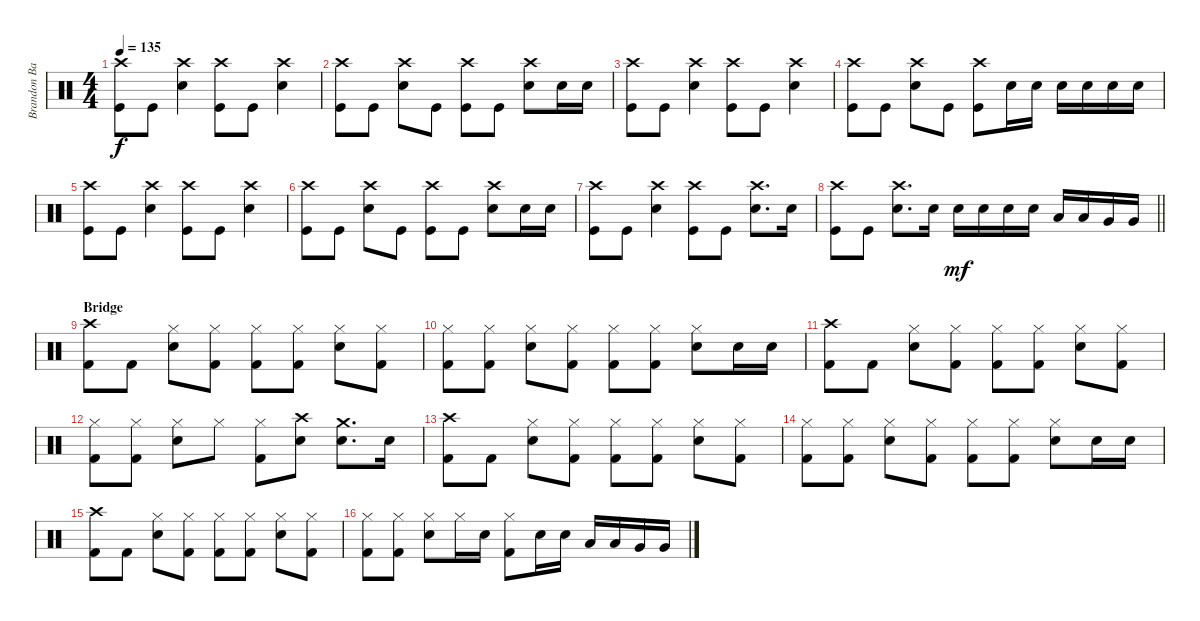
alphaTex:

\track ("Brandon Barnes - Drums" "Brandon Ba") {instrument percussion}
\staff {score}
\articulation defaults
\ts (4 4)
\tempo 135
\clef neutral
\ks c
("Crash high (hit)" "Kick (hit)").8{dy f} "Kick (hit)".8 ("Snare (hit) 2" "Crash high (hit)").4 ("Crash high (hit)" "Kick (hit)").8 "Kick (hit)".8 ("Snare (hit) 2" "Crash high (hit)").4 |
("Crash high (hit)" "Kick (hit)").8 "Kick (hit)".8 ("Snare (hit) 2" "Crash high (hit)").8 "Kick (hit)".8 ("Crash high (hit)" "Kick (hit)").8 "Kick (hit)".8 ("Snare (hit) 2" "Crash high (hit)").8 "Snare (hit) 2".16 "Snare (hit) 2".16 |
("Crash high (hit)" "Kick (hit)").8 "Kick (hit)".8 ("Snare (hit) 2" "Crash high (hit)").4 ("Crash high (hit)" "Kick (hit)").8 "Kick (hit)".8 ("Snare (hit) 2" "Crash high (hit)").4 |
("Crash high (hit)" "Kick (hit)").8 "Kick (hit)".8 ("Snare (hit) 2" "Crash high (hit)").8 "Kick (hit)".8 ("Crash high (hit)" "Kick (hit)").8 "Snare (hit) 2".16 "Snare (hit) 2".16 "Snare (hit) 2".16 "Snare (hit) 2".16 "Snare (hit) 2".16 "Snare (hit) 2".16 |
("Crash high (hit)" "Kick (hit)").8 "Kick (hit)".8 ("Snare (hit) 2" "Crash high (hit)").4 ("Crash high (hit)" "Kick (hit)").8 "Kick (hit)".8 ("Snare (hit) 2" "Crash high (hit)").4 |
("Crash high (hit)" "Kick (hit)").8 "Kick (hit)".8 ("Snare (hit) 2" "Crash high (hit)").8 "Kick (hit)".8 ("Crash high (hit)" "Kick (hit)").8 "Kick (hit)".8 ("Snare (hit) 2" "Crash high (hit)").8 "Snare (hit) 2".16 "Snare (hit) 2".16 |
("Crash high (hit)" "Kick (hit)").8 "Kick (hit)".8 ("Snare (hit) 2" "Crash high (hit)").4 ("Crash high (hit)" "Kick (hit)").8 "Kick (hit)".8 ("Snare (hit) 2" "Crash high (hit)").8{d} "Snare (hit) 2".16 |
\barLineRight lightlight
("Crash high (hit)" "Kick (hit)").8 "Kick (hit)".8 ("Snare (hit) 2" "Crash high (hit)").8{d} "Snare (hit) 2".16 "Snare (hit) 2".16{dy mf} "Snare (hit) 2".16 "Snare (hit) 2".16 "Snare (hit) 2".16 "Low Tom (hit)".16 "Low Tom (hit)".16 "Very Low Tom (hit)".16 "Very Low Tom (hit)".16 |
\section ("" "Bridge")
("Crash high (hit)" "Kick (hit) 2").8 "Kick (hit) 2".8 ("Hi-Hat (closed)" "Snare (hit) 2").8 ("Kick (hit) 2" "Hi-Hat (closed)").8 ("Kick (hit) 2" "Hi-Hat (closed)").8 ("Kick (hit) 2" "Hi-Hat (closed)").8 ("Snare (hit) 2" "Hi-Hat (closed)").8 ("Kick (hit) 2" "Hi-Hat (closed)").8 |
("Kick (hit) 2" "Hi-Hat (closed)").8 ("Kick (hit) 2" "Hi-Hat (closed)").8 ("Snare (hit) 2" "Hi-Hat (closed)").8 ("Kick (hit) 2" "Hi-Hat (closed)").8 ("Kick (hit) 2" "Hi-Hat (closed)").8 ("Kick (hit) 2" "Hi-Hat (closed)").8 ("Snare (hit) 2" "Hi-Hat (closed)").8 "Snare (hit) 2".16 "Snare (hit) 2".16 |
("Crash high (hit)" "Kick (hit) 2").8 "Kick (hit) 2".8 ("Snare (hit) 2" "Hi-Hat (closed)").8 ("Kick (hit) 2" "Hi-Hat (closed)").8 ("Kick (hit) 2" "Hi-Hat (closed)").8 ("Kick (hit) 2" "Hi-Hat (closed)").8 ("Snare (hit) 2" "Hi-Hat (closed)").8 ("Kick (hit) 2" "Hi-Hat (closed)").8 |
("Kick (hit) 2" "Hi-Hat (closed)").8 ("Kick (hit) 2" "Hi-Hat (closed)").8 ("Snare (hit) 2" "Hi-Hat (closed)").8 "Hi-Hat (closed)".8 ("Kick (hit) 2" "Hi-Hat (closed)").8 ("Crash high (hit)" "Snare (hit) 2").8 ("Snare (hit) 2" "Crash medium (hit)").8{d} "Snare (hit) 2".16 |
("Crash high (hit)" "Kick (hit) 2").8 "Kick (hit) 2".8 ("Snare (hit) 2" "Hi-Hat (closed)").8 ("Kick (hit) 2" "Hi-Hat (closed)").8 ("Kick (hit) 2" "Hi-Hat (closed)").8 ("Kick (hit) 2" "Hi-Hat (closed)").8 ("Snare (hit) 2" "Hi-Hat (closed)").8 ("Kick (hit) 2" "Hi-Hat (closed)").8 |
("Kick (hit) 2" "Hi-Hat (closed)").8 ("Kick (hit) 2" "Hi-Hat (closed)").8 ("Snare (hit) 2" "Hi-Hat (closed)").8 ("Kick (hit) 2" "Hi-Hat (closed)").8 ("Kick (hit) 2" "Hi-Hat (closed)").8 ("Kick (hit) 2" "Hi-Hat (closed)").8 ("Snare (hit) 2" "Hi-Hat (closed)").8 "Snare (hit) 2".16 "Snare (hit) 2".16 |
("Crash high (hit)" "Kick (hit) 2").8 "Kick (hit) 2".8 ("Snare (hit) 2" "Hi-Hat (closed)").8 ("Kick (hit) 2" "Hi-Hat (closed)").8 ("Kick (hit) 2" "Hi-Hat (closed)").8 ("Kick (hit) 2" "Hi-Hat (closed)").8 ("Snare (hit) 2" "Hi-Hat (closed)").8 ("Kick (hit) 2" "Hi-Hat (closed)").8 |
("Kick (hit) 2" "Hi-Hat (closed)").8 ("Kick (hit) 2" "Hi-Hat (closed)").8 ("Snare (hit) 2" "Hi-Hat (closed)").8 "Hi-Hat (closed)".16 "Snare (hit) 2".16 ("Kick (hit) 2" "Hi-Hat (closed)").8 "Snare (hit) 2".16 "Snare (hit) 2".16 "Low Tom (hit)".16 "Low Tom (hit)".16 "Very Low Tom (hit)".16 "Very Low Tom (hit)".16
